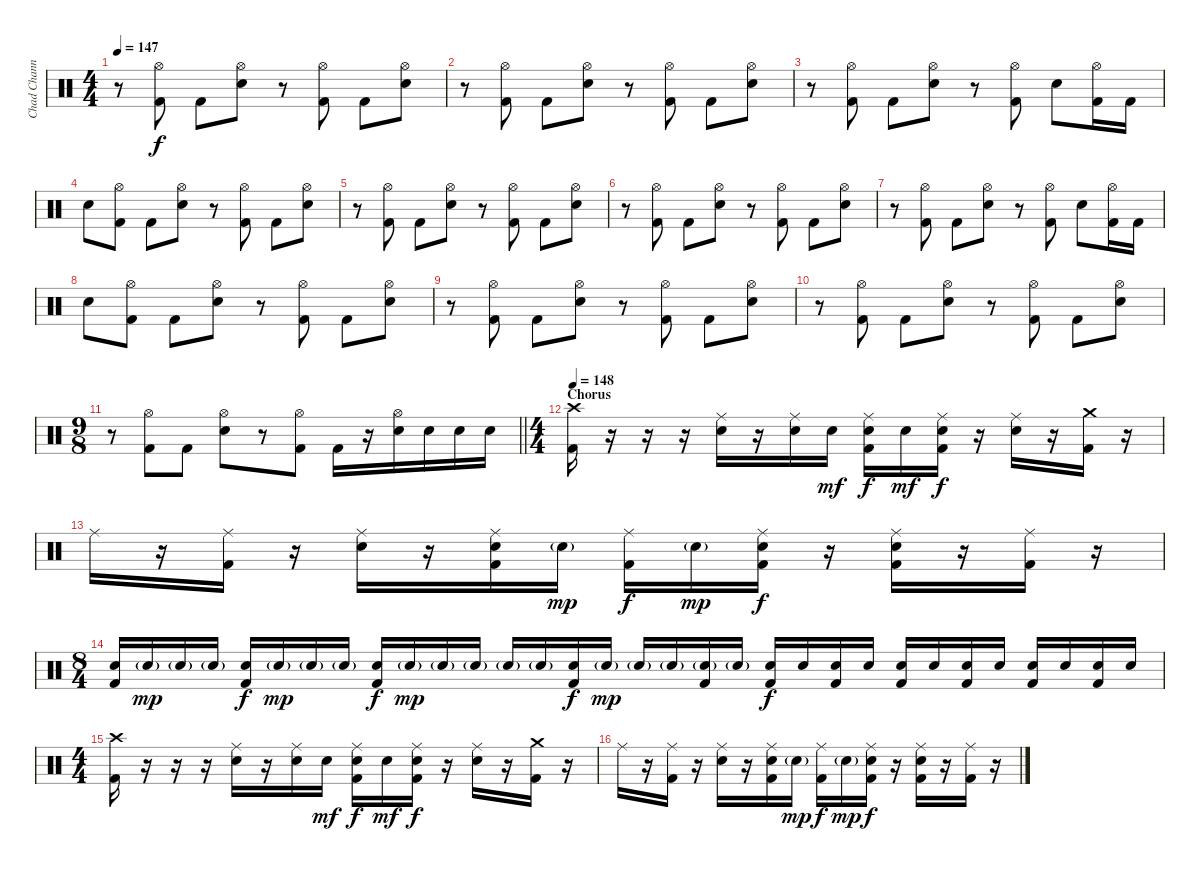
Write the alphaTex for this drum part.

\track ("Chad Channing" "Chad Chann") {instrument percussion}
\staff {score}
\articulation defaults
\ts (4 4)
\tempo 147
\clef neutral
\ks c
r.8{dy f} ("Kick (hit) 2" "Hi-Hat (open)").8 "Kick (hit) 2".8 ("Electric Snare (hit)" "Hi-Hat (open)").8 r.8 ("Kick (hit) 2" "Hi-Hat (open)").8 "Kick (hit) 2".8 ("Electric Snare (hit)" "Hi-Hat (open)").8 |
r.8 ("Kick (hit) 2" "Hi-Hat (open)").8 "Kick (hit) 2".8 ("Electric Snare (hit)" "Hi-Hat (open)").8 r.8 ("Kick (hit) 2" "Hi-Hat (open)").8 "Kick (hit) 2".8 ("Electric Snare (hit)" "Hi-Hat (open)").8 |
r.8 ("Kick (hit) 2" "Hi-Hat (open)").8 "Kick (hit) 2".8 ("Electric Snare (hit)" "Hi-Hat (open)").8 r.8 ("Kick (hit) 2" "Hi-Hat (open)").8 "Electric Snare (hit)".8 ("Kick (hit) 2" "Hi-Hat (open)").16 "Kick (hit) 2".16 |
"Electric Snare (hit)".8 ("Kick (hit) 2" "Hi-Hat (open)").8 "Kick (hit) 2".8 ("Electric Snare (hit)" "Hi-Hat (open)").8 r.8 ("Kick (hit) 2" "Hi-Hat (open)").8 "Kick (hit) 2".8 ("Electric Snare (hit)" "Hi-Hat (open)").8 |
r.8 ("Kick (hit) 2" "Hi-Hat (open)").8 "Kick (hit) 2".8 ("Electric Snare (hit)" "Hi-Hat (open)").8 r.8 ("Kick (hit) 2" "Hi-Hat (open)").8 "Kick (hit) 2".8 ("Electric Snare (hit)" "Hi-Hat (open)").8 |
r.8 ("Kick (hit) 2" "Hi-Hat (open)").8 "Kick (hit) 2".8 ("Electric Snare (hit)" "Hi-Hat (open)").8 r.8 ("Kick (hit) 2" "Hi-Hat (open)").8 "Kick (hit) 2".8 ("Electric Snare (hit)" "Hi-Hat (open)").8 |
r.8 ("Kick (hit) 2" "Hi-Hat (open)").8 "Kick (hit) 2".8 ("Electric Snare (hit)" "Hi-Hat (open)").8 r.8 ("Kick (hit) 2" "Hi-Hat (open)").8 "Electric Snare (hit)".8 ("Kick (hit) 2" "Hi-Hat (open)").16 "Kick (hit) 2".16 |
"Electric Snare (hit)".8 ("Kick (hit) 2" "Hi-Hat (open)").8 "Kick (hit) 2".8 ("Electric Snare (hit)" "Hi-Hat (open)").8 r.8 ("Kick (hit) 2" "Hi-Hat (open)").8 "Kick (hit) 2".8 ("Electric Snare (hit)" "Hi-Hat (open)").8 |
r.8 ("Kick (hit) 2" "Hi-Hat (open)").8 "Kick (hit) 2".8 ("Electric Snare (hit)" "Hi-Hat (open)").8 r.8 ("Kick (hit) 2" "Hi-Hat (open)").8 "Kick (hit) 2".8 ("Electric Snare (hit)" "Hi-Hat (open)").8 |
r.8 ("Kick (hit) 2" "Hi-Hat (open)").8 "Kick (hit) 2".8 ("Electric Snare (hit)" "Hi-Hat (open)").8 r.8 ("Kick (hit) 2" "Hi-Hat (open)").8 "Kick (hit) 2".8 ("Electric Snare (hit)" "Hi-Hat (open)").8 |
\ts (9 8)
\barLineRight lightlight
r.8 ("Kick (hit) 2" "Hi-Hat (open)").8 "Kick (hit) 2".8 ("Electric Snare (hit)" "Hi-Hat (open)").8 r.8 ("Kick (hit) 2" "Hi-Hat (open)").8 "Kick (hit) 2".16 r.16 ("Electric Snare (hit)" "Hi-Hat (open)").16 "Electric Snare (hit)".16 "Electric Snare (hit)".16 "Electric Snare (hit)".16 |
\ts (4 4)
\section ("" "Chorus")
\tempo 148
("Crash high (hit)" "Kick (hit) 2").16 r.16 r.16 r.16 ("Electric Snare (hit)" "Ride (middle)").16 r.16 ("Electric Snare (hit)" "Ride (middle)").16 "Electric Snare (hit)".16{dy mf} ("Electric Snare (hit)" "Ride (middle)" "Kick (hit) 2").16{dy f} "Electric Snare (hit)".16{dy mf} ("Electric Snare (hit)" "Ride (middle)" "Kick (hit) 2").16{dy f} r.16 ("Electric Snare (hit)" "Ride (middle)").16 r.16 ("Kick (hit) 2" "Crash medium (hit)").16 r.16 |
"Ride (middle)".16 r.16 ("Ride (middle)" "Kick (hit) 2").16 r.16 ("Electric Snare (hit)" "Ride (middle)").16 r.16 ("Electric Snare (hit)" "Ride (middle)" "Kick (hit) 2").16 "Electric Snare (hit)"{g}.16{dy mp} ("Ride (middle)" "Kick (hit) 2").16{dy f} "Electric Snare (hit)"{g}.16{dy mp} ("Electric Snare (hit)" "Ride (middle)" "Kick (hit) 2").16{dy f} r.16 ("Electric Snare (hit)" "Ride (middle)" "Kick (hit) 2").16 r.16 ("Ride (middle)" "Kick (hit) 2").16 r.16 |
\ts (8 4)
("Kick (hit) 2" "Electric Snare (hit)").16 "Electric Snare (hit)"{g}.16{dy mp} "Electric Snare (hit)"{g}.16 "Electric Snare (hit)"{g}.16 ("Kick (hit) 2" "Electric Snare (hit)").16{dy f} "Electric Snare (hit)"{g}.16{dy mp} "Electric Snare (hit)"{g}.16 "Electric Snare (hit)"{g}.16 ("Kick (hit) 2" "Electric Snare (hit)").16{dy f} "Electric Snare (hit)"{g}.16{dy mp} "Electric Snare (hit)"{g}.16 "Electric Snare (hit)"{g}.16 "Electric Snare (hit)"{g}.16 "Electric Snare (hit)"{g}.16 ("Kick (hit) 2" "Electric Snare (hit)").16{dy f} "Electric Snare (hit)"{g}.16{dy mp} "Electric Snare (hit)"{g}.16 "Electric Snare (hit)"{g}.16 ("Kick (hit) 2" "Electric Snare (hit)"{g}).16 "Electric Snare (hit)"{g}.16 ("Kick (hit) 2" "Electric Snare (hit)").16{dy f} "Electric Snare (hit)".16 ("Kick (hit) 2" "Electric Snare (hit)").16 "Electric Snare (hit)".16 ("Kick (hit) 2" "Electric Snare (hit)").16 "Electric Snare (hit)".16 ("Kick (hit) 2" "Electric Snare (hit)").16 "Electric Snare (hit)".16 ("Kick (hit) 2" "Electric Snare (hit)").16 "Electric Snare (hit)".16 ("Kick (hit) 2" "Electric Snare (hit)").16 "Electric Snare (hit)".16 |
\ts (4 4)
("Crash high (hit)" "Kick (hit) 2").16 r.16 r.16 r.16 ("Electric Snare (hit)" "Ride (middle)").16 r.16 ("Electric Snare (hit)" "Ride (middle)").16 "Electric Snare (hit)".16{dy mf} ("Electric Snare (hit)" "Ride (middle)" "Kick (hit) 2").16{dy f} "Electric Snare (hit)".16{dy mf} ("Electric Snare (hit)" "Ride (middle)" "Kick (hit) 2").16{dy f} r.16 ("Electric Snare (hit)" "Ride (middle)").16 r.16 ("Kick (hit) 2" "Crash medium (hit)").16 r.16 |
"Ride (middle)".16 r.16 ("Ride (middle)" "Kick (hit) 2").16 r.16 ("Electric Snare (hit)" "Ride (middle)").16 r.16 ("Electric Snare (hit)" "Ride (middle)" "Kick (hit) 2").16 "Electric Snare (hit)"{g}.16{dy mp} ("Ride (middle)" "Kick (hit) 2").16{dy f} "Electric Snare (hit)"{g}.16{dy mp} ("Electric Snare (hit)" "Ride (middle)" "Kick (hit) 2").16{dy f} r.16 ("Electric Snare (hit)" "Ride (middle)" "Kick (hit) 2").16 r.16 ("Ride (middle)" "Kick (hit) 2").16 r.16
